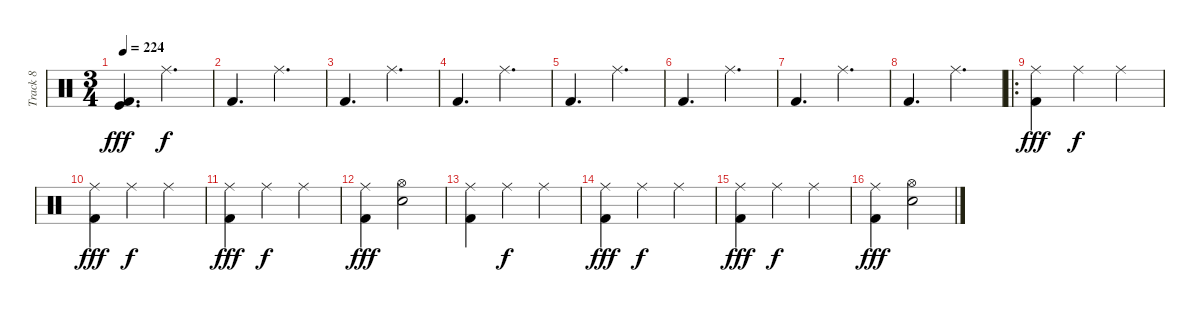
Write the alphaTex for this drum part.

\track ("Track 8" "Track 8") {instrument percussion}
\staff {score}
\articulation defaults
\ts (3 4)
\tempo 224
\clef neutral
\ks c
("Kick (hit) 2" "Kick (hit)").4{d dy fff} "Ride (middle)".4{d dy f} |
"Kick (hit) 2".4{d} "Ride (middle)".4{d} |
"Kick (hit) 2".4{d} "Ride (middle)".4{d} |
"Kick (hit) 2".4{d} "Ride (middle)".4{d} |
"Kick (hit) 2".4{d} "Ride (middle)".4{d} |
"Kick (hit) 2".4{d} "Ride (middle)".4{d} |
"Kick (hit) 2".4{d} "Ride (middle)".4{d} |
"Kick (hit) 2".4{d} "Ride (middle)".4{d} |
\ro
("Ride (middle)" "Kick (hit) 2").4{dy fff} "Ride (middle)".4{dy f} "Ride (middle)".4 |
("Ride (middle)" "Kick (hit) 2").4{dy fff} "Ride (middle)".4{dy f} "Ride (middle)".4 |
("Ride (middle)" "Kick (hit) 2").4{dy fff} "Ride (middle)".4{dy f} "Ride (middle)".4 |
("Ride (middle)" "Kick (hit) 2").4{dy fff} ("Hi-Hat (open)" "Snare (hit)").2 |
("Ride (middle)" "Kick (hit) 2").4 "Ride (middle)".4{dy f} "Ride (middle)".4 |
("Ride (middle)" "Kick (hit) 2").4{dy fff} "Ride (middle)".4{dy f} "Ride (middle)".4 |
("Ride (middle)" "Kick (hit) 2").4{dy fff} "Ride (middle)".4{dy f} "Ride (middle)".4 |
("Ride (middle)" "Kick (hit) 2").4{dy fff} ("Hi-Hat (open)" "Snare (hit)").2
